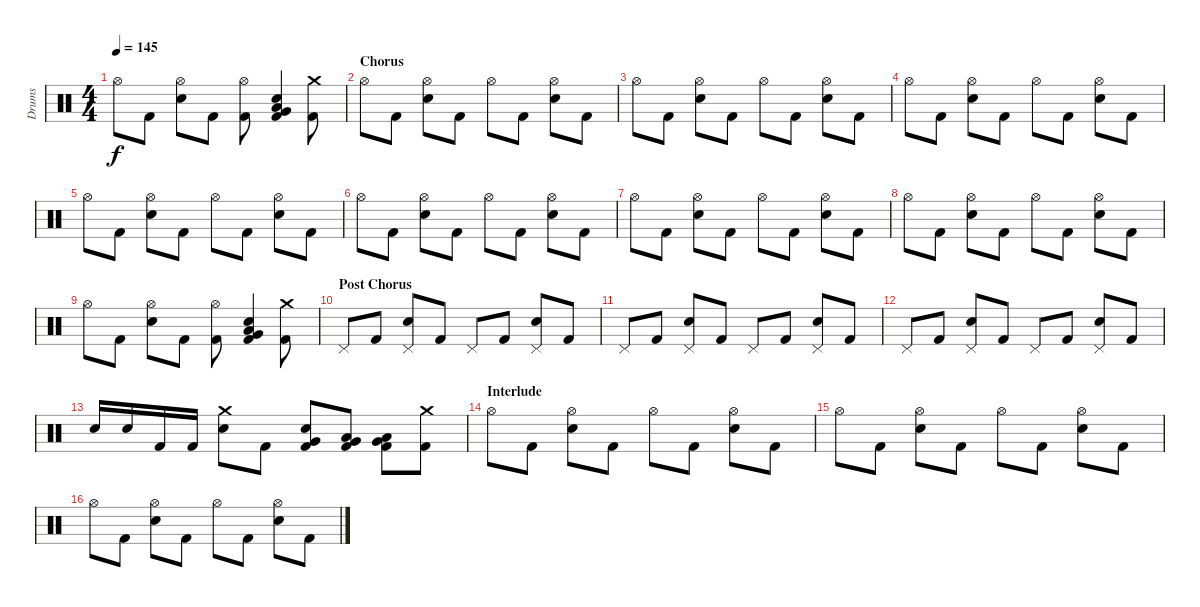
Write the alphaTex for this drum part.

\track ("Drums" "Drums") {instrument percussion}
\staff {score}
\articulation defaults
\ts (4 4)
\tempo 145
\clef neutral
\ks c "Hi-Hat (open)".8{dy f} "Kick (hit) 2".8
("Hi-Hat (open)" "Electric Snare (hit)").8 "Kick (hit) 2".8 ("Hi-Hat (open)" "Kick (hit) 2").8 ("Low Floor Tom (hit)" "Electric Snare (hit)" "Very Low Tom (hit)" "Kick (hit) 2").4 ("Crash medium (hit)" "Kick (hit) 2").8 |
\section ("" "Chorus")
"Hi-Hat (open)".8 "Kick (hit) 2".8 ("Hi-Hat (open)" "Electric Snare (hit)").8 "Kick (hit) 2".8 "Hi-Hat (open)".8 "Kick (hit) 2".8 ("Hi-Hat (open)" "Electric Snare (hit)").8 "Kick (hit) 2".8 |
"Hi-Hat (open)".8 "Kick (hit) 2".8 ("Hi-Hat (open)" "Electric Snare (hit)").8 "Kick (hit) 2".8 "Hi-Hat (open)".8 "Kick (hit) 2".8 ("Hi-Hat (open)" "Electric Snare (hit)").8 "Kick (hit) 2".8 |
"Hi-Hat (open)".8 "Kick (hit) 2".8 ("Hi-Hat (open)" "Electric Snare (hit)").8 "Kick (hit) 2".8 "Hi-Hat (open)".8 "Kick (hit) 2".8 ("Hi-Hat (open)" "Electric Snare (hit)").8 "Kick (hit) 2".8 |
"Hi-Hat (open)".8 "Kick (hit) 2".8 ("Hi-Hat (open)" "Electric Snare (hit)").8 "Kick (hit) 2".8 "Hi-Hat (open)".8 "Kick (hit) 2".8 ("Hi-Hat (open)" "Electric Snare (hit)").8 "Kick (hit) 2".8 |
"Hi-Hat (open)".8 "Kick (hit) 2".8 ("Hi-Hat (open)" "Electric Snare (hit)").8 "Kick (hit) 2".8 "Hi-Hat (open)".8 "Kick (hit) 2".8 ("Hi-Hat (open)" "Electric Snare (hit)").8 "Kick (hit) 2".8 |
"Hi-Hat (open)".8 "Kick (hit) 2".8 ("Hi-Hat (open)" "Electric Snare (hit)").8 "Kick (hit) 2".8 "Hi-Hat (open)".8 "Kick (hit) 2".8 ("Hi-Hat (open)" "Electric Snare (hit)").8 "Kick (hit) 2".8 |
"Hi-Hat (open)".8 "Kick (hit) 2".8 ("Hi-Hat (open)" "Electric Snare (hit)").8 "Kick (hit) 2".8 "Hi-Hat (open)".8 "Kick (hit) 2".8 ("Hi-Hat (open)" "Electric Snare (hit)").8 "Kick (hit) 2".8 |
"Hi-Hat (open)".8 "Kick (hit) 2".8 ("Hi-Hat (open)" "Electric Snare (hit)").8 "Kick (hit) 2".8 ("Hi-Hat (open)" "Kick (hit) 2").8 ("Low Floor Tom (hit)" "Electric Snare (hit)" "Very Low Tom (hit)" "Kick (hit) 2").4 ("Crash medium (hit)" "Kick (hit) 2").8 |
\section ("" "Post Chorus")
"Pedal Hi-Hat (hit)".8 "Kick (hit) 2".8 ("Pedal Hi-Hat (hit)" "Electric Snare (hit)").8 "Kick (hit) 2".8 "Pedal Hi-Hat (hit)".8 "Kick (hit) 2".8 ("Pedal Hi-Hat (hit)" "Electric Snare (hit)").8 "Kick (hit) 2".8 |
"Pedal Hi-Hat (hit)".8 "Kick (hit) 2".8 ("Pedal Hi-Hat (hit)" "Electric Snare (hit)").8 "Kick (hit) 2".8 "Pedal Hi-Hat (hit)".8 "Kick (hit) 2".8 ("Pedal Hi-Hat (hit)" "Electric Snare (hit)").8 "Kick (hit) 2".8 |
"Pedal Hi-Hat (hit)".8 "Kick (hit) 2".8 ("Pedal Hi-Hat (hit)" "Electric Snare (hit)").8 "Kick (hit) 2".8 "Pedal Hi-Hat (hit)".8 "Kick (hit) 2".8 ("Pedal Hi-Hat (hit)" "Electric Snare (hit)").8 "Kick (hit) 2".8 |
"Electric Snare (hit)".16 "Electric Snare (hit)".16 "Kick (hit) 2".16 "Kick (hit) 2".16 ("Crash medium (hit)" "Electric Snare (hit)").8 "Kick (hit) 2".8 ("Kick (hit) 2" "Electric Snare (hit)" "Very Low Tom (hit)").8 ("Kick (hit) 2" "Low Floor Tom (hit)" "Very Low Tom (hit)").8 ("Kick (hit) 2" "Low Floor Tom (hit)" "Very Low Tom (hit)").8 ("Crash medium (hit)" "Kick (hit) 2").8 |
\section ("" "Interlude")
"Hi-Hat (open)".8 "Kick (hit) 2".8 ("Hi-Hat (open)" "Electric Snare (hit)").8 "Kick (hit) 2".8 "Hi-Hat (open)".8 "Kick (hit) 2".8 ("Hi-Hat (open)" "Electric Snare (hit)").8 "Kick (hit) 2".8 |
"Hi-Hat (open)".8 "Kick (hit) 2".8 ("Hi-Hat (open)" "Electric Snare (hit)").8 "Kick (hit) 2".8 "Hi-Hat (open)".8 "Kick (hit) 2".8 ("Hi-Hat (open)" "Electric Snare (hit)").8 "Kick (hit) 2".8 |
"Hi-Hat (open)".8 "Kick (hit) 2".8 ("Hi-Hat (open)" "Electric Snare (hit)").8 "Kick (hit) 2".8 "Hi-Hat (open)".8 "Kick (hit) 2".8 ("Hi-Hat (open)" "Electric Snare (hit)").8 "Kick (hit) 2".8
